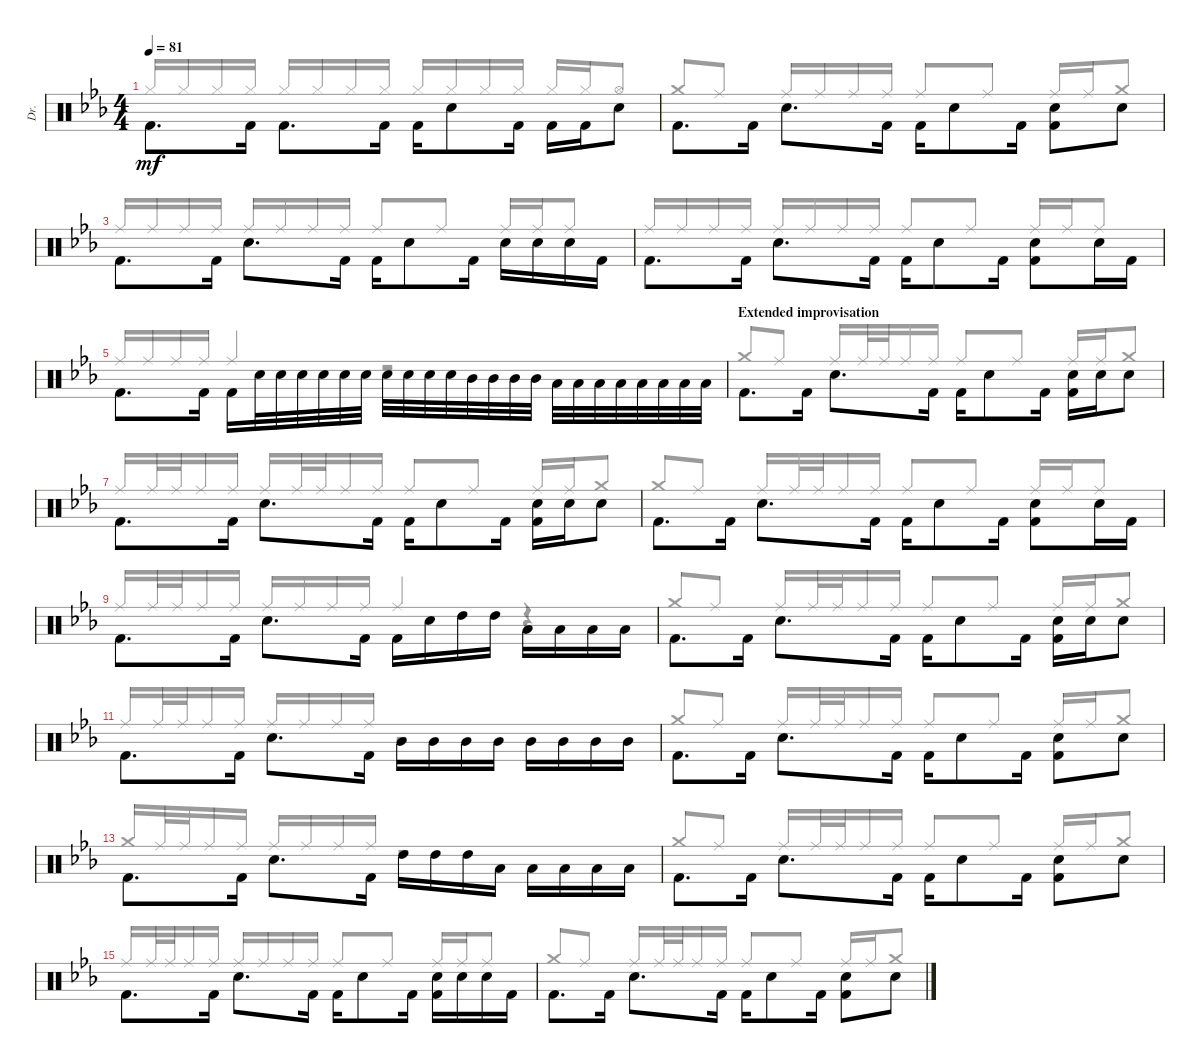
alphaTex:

\bracketExtendMode groupsimilarinstruments
\otherSystemsTrackNameOrientation horizontal
\defaultBarNumberDisplay FirstOfSystem
\track ("Drums" "Dr.") {multiBarRest instrument percussion}
\staff {score}
\articulation defaults
\voice
\ts (4 4)
\tempo 81
\clef neutral
\ks eb "Kick (hit) 2"{acc forcenatural}.8{d dy mf beam Down} "Kick (hit) 2"{acc forcenatural}.16{beam Down} "Kick (hit) 2"{acc forcenatural}.8{d beam Down} "Kick (hit) 2"{acc forcenatural}.16{beam Down} "Kick (hit) 2"{acc forcenatural}.16{beam Down} "Snare (hit) 2"{acc forcenatural}.8{beam Down} "Kick (hit) 2"{acc forcenatural}.16{beam Down} "Kick (hit) 2"{acc forcenatural}.16{beam Down} "Kick (hit) 2"{acc forcenatural}.16{beam Down} "Snare (hit) 2"{acc forcenatural}.8{beam Down}
|
"Kick (hit) 2"{acc forcenatural}.8{d beam Down} "Kick (hit) 2"{acc forcenatural}.16{beam Down} "Snare (hit) 2"{acc forcenatural}.8{d beam Down} "Kick (hit) 2"{acc forcenatural}.16{beam Down} "Kick (hit) 2"{acc forcenatural}.16{beam Down} "Snare (hit) 2"{acc forcenatural}.8{beam Down} "Kick (hit) 2"{acc forcenatural}.16{beam Down} ("Snare (hit) 2"{acc forcenatural} "Kick (hit) 2"{acc forcenatural}).8{beam Down} "Snare (hit) 2"{acc forcenatural}.8{beam Down} |
"Kick (hit) 2"{acc forcenatural}.8{d beam Down} "Kick (hit) 2"{acc forcenatural}.16{beam Down} "Snare (hit) 2"{acc forcenatural}.8{d beam Down} "Kick (hit) 2"{acc forcenatural}.16{beam Down} "Kick (hit) 2"{acc forcenatural}.16{beam Down} "Snare (hit) 2"{acc forcenatural}.8{beam Down} "Kick (hit) 2"{acc forcenatural}.16{beam Down} "Snare (hit) 2"{acc forcenatural}.16{beam Down} "Snare (hit) 2"{acc forcenatural}.16{beam Down} "Snare (hit) 2"{acc forcenatural}.16{beam Down} "Kick (hit) 2"{acc forcenatural}.16{beam Down} |
"Kick (hit) 2"{acc forcenatural}.8{d beam Down} "Kick (hit) 2"{acc forcenatural}.16{beam Down} "Snare (hit) 2"{acc forcenatural}.8{d beam Down} "Kick (hit) 2"{acc forcenatural}.16{beam Down} "Kick (hit) 2"{acc forcenatural}.16{beam Down} "Snare (hit) 2"{acc forcenatural}.8{beam Down} "Kick (hit) 2"{acc forcenatural}.16{beam Down} ("Kick (hit) 2"{acc forcenatural} "Snare (hit) 2"{acc forcenatural}).8{beam Down} "Snare (hit) 2"{acc forcenatural}.16{beam Down} "Kick (hit) 2"{acc forcenatural}.16{beam Down} |
"Kick (hit) 2"{acc forcenatural}.8{d beam Down} "Kick (hit) 2"{acc forcenatural}.16{beam Down} "Kick (hit) 2"{acc forcenatural}.16{beam Down} "Snare (hit) 2"{acc forcenatural}.32{beam Down} "Snare (hit) 2"{acc forcenatural}.32{beam Down} "Snare (hit) 2"{acc forcenatural}.32{beam Down} "Snare (hit) 2"{acc forcenatural}.32{beam Down} "Snare (hit) 2"{acc forcenatural}.32{beam Down} "Snare (hit) 2"{acc forcenatural}.32{beam Down} "Snare (hit) 2"{acc forcenatural}.32{beam Down} "Snare (hit) 2"{acc forcenatural}.32{beam Down} "Snare (hit) 2"{acc forcenatural}.32{beam Down} "Snare (hit) 2"{acc forcenatural}.32{beam Down} "Mid Tom (hit)"{acc forcenatural}.32{beam Down} "Mid Tom (hit)"{acc forcenatural}.32{beam Down} "Mid Tom (hit)"{acc forcenatural}.32{beam Down} "Mid Tom (hit)"{acc forcenatural}.32{beam Down} "Low Tom (hit)"{acc forcenatural}.32{beam Down} "Low Tom (hit)"{acc forcenatural}.32{beam Down} "Low Tom (hit)"{acc forcenatural}.32{beam Down} "Low Tom (hit)"{acc forcenatural}.32{beam Down} "Low Tom (hit)"{acc forcenatural}.32{beam Down} "Low Tom (hit)"{acc forcenatural}.32{beam Down} "Low Tom (hit)"{acc forcenatural}.32{beam Down} "Low Tom (hit)"{acc forcenatural}.32{beam Down} |
\section ("" "Extended improvisation")
"Kick (hit) 2"{acc forcenatural}.8{d beam Down} "Kick (hit) 2"{acc forcenatural}.16{beam Down} "Snare (hit) 2"{acc forcenatural}.8{d beam Down} "Kick (hit) 2"{acc forcenatural}.16{beam Down} "Kick (hit) 2"{acc forcenatural}.16{beam Down} "Snare (hit) 2"{acc forcenatural}.8{beam Down} "Kick (hit) 2"{acc forcenatural}.16{beam Down} ("Kick (hit) 2"{acc forcenatural} "Snare (hit) 2"{acc forcenatural}).16{beam Down} "Snare (hit) 2"{acc forcenatural}.16{beam Down} "Snare (hit) 2"{acc forcenatural}.8{beam Down} |
"Kick (hit) 2"{acc forcenatural}.8{d beam Down} "Kick (hit) 2"{acc forcenatural}.16{beam Down} "Snare (hit) 2"{acc forcenatural}.8{d beam Down} "Kick (hit) 2"{acc forcenatural}.16{beam Down} "Kick (hit) 2"{acc forcenatural}.16{beam Down} "Snare (hit) 2"{acc forcenatural}.8{beam Down} "Kick (hit) 2"{acc forcenatural}.16{beam Down} ("Kick (hit) 2"{acc forcenatural} "Snare (hit) 2"{acc forcenatural}).16{beam Down} "Snare (hit) 2"{acc forcenatural}.16{beam Down} "Snare (hit) 2"{acc forcenatural}.8{beam Down} |
"Kick (hit) 2"{acc forcenatural}.8{d beam Down} "Kick (hit) 2"{acc forcenatural}.16{beam Down} "Snare (hit) 2"{acc forcenatural}.8{d beam Down} "Kick (hit) 2"{acc forcenatural}.16{beam Down} "Kick (hit) 2"{acc forcenatural}.16{beam Down} "Snare (hit) 2"{acc forcenatural}.8{beam Down} "Kick (hit) 2"{acc forcenatural}.16{beam Down} ("Kick (hit) 2"{acc forcenatural} "Snare (hit) 2"{acc forcenatural}).8{beam Down} "Snare (hit) 2"{acc forcenatural}.16{beam Down} "Kick (hit) 2"{acc forcenatural}.16{beam Down} |
"Kick (hit) 2"{acc forcenatural}.8{d beam Down} "Kick (hit) 2"{acc forcenatural}.16{beam Down} "Snare (hit) 2"{acc forcenatural}.8{d beam Down} "Kick (hit) 2"{acc forcenatural}.16{beam Down} "Kick (hit) 2"{acc forcenatural}.16{beam Down} "Snare (hit) 2"{acc forcenatural}.16{beam Down} "High Tom (hit)"{acc forcenatural}.16{beam Down} "High Tom (hit)"{acc forcenatural}.16{beam Down} "Low Tom (hit)"{acc forcenatural}.16{beam Down} "Low Tom (hit)"{acc forcenatural}.16{beam Down} "Low Tom (hit)"{acc forcenatural}.16{beam Down} "Low Tom (hit)"{acc forcenatural}.16{beam Down} |
"Kick (hit) 2"{acc forcenatural}.8{d beam Down} "Kick (hit) 2"{acc forcenatural}.16{beam Down} "Snare (hit) 2"{acc forcenatural}.8{d beam Down} "Kick (hit) 2"{acc forcenatural}.16{beam Down} "Kick (hit) 2"{acc forcenatural}.16{beam Down} "Snare (hit) 2"{acc forcenatural}.8{beam Down} "Kick (hit) 2"{acc forcenatural}.16{beam Down} ("Kick (hit) 2"{acc forcenatural} "Snare (hit) 2"{acc forcenatural}).16{beam Down} "Snare (hit) 2"{acc forcenatural}.16{beam Down} "Snare (hit) 2"{acc forcenatural}.8{beam Down} |
"Kick (hit) 2"{acc forcenatural}.8{d beam Down} "Kick (hit) 2"{acc forcenatural}.16{beam Down} "Snare (hit) 2"{acc forcenatural}.8{d beam Down} "Kick (hit) 2"{acc forcenatural}.16{beam Down} "Mid Tom (hit)"{acc forcenatural}.16{beam Down} "Mid Tom (hit)"{acc forcenatural}.16{beam Down} "Mid Tom (hit)"{acc forcenatural}.16{beam Down} "Mid Tom (hit)"{acc forcenatural}.16{beam Down} "Mid Tom (hit)"{acc forcenatural}.16{beam Down} "Mid Tom (hit)"{acc forcenatural}.16{beam Down} "Mid Tom (hit)"{acc forcenatural}.16{beam Down} "Mid Tom (hit)"{acc forcenatural}.16{beam Down} |
"Kick (hit) 2"{acc forcenatural}.8{d beam Down} "Kick (hit) 2"{acc forcenatural}.16{beam Down} "Snare (hit) 2"{acc forcenatural}.8{d beam Down} "Kick (hit) 2"{acc forcenatural}.16{beam Down} "Kick (hit) 2"{acc forcenatural}.16{beam Down} "Snare (hit) 2"{acc forcenatural}.8{beam Down} "Kick (hit) 2"{acc forcenatural}.16{beam Down} ("Snare (hit) 2"{acc forcenatural} "Kick (hit) 2"{acc forcenatural}).8{beam Down} "Snare (hit) 2"{acc forcenatural}.8{beam Down} |
"Kick (hit) 2"{acc forcenatural}.8{d beam Down} "Kick (hit) 2"{acc forcenatural}.16{beam Down} "Snare (hit) 2"{acc forcenatural}.8{d beam Down} "Kick (hit) 2"{acc forcenatural}.16{beam Down} "High Tom (hit)"{acc forcenatural}.16{beam Down} "High Tom (hit)"{acc forcenatural}.16{beam Down} "High Tom (hit)"{acc forcenatural}.16{beam Down} "Low Tom (hit)"{acc forcenatural}.16{beam Down} "Low Tom (hit)"{acc forcenatural}.16{beam Down} "Low Tom (hit)"{acc forcenatural}.16{beam Down} "Low Tom (hit)"{acc forcenatural}.16{beam Down} "Low Tom (hit)"{acc forcenatural}.16{beam Down} |
"Kick (hit) 2"{acc forcenatural}.8{d beam Down} "Kick (hit) 2"{acc forcenatural}.16{beam Down} "Snare (hit) 2"{acc forcenatural}.8{d beam Down} "Kick (hit) 2"{acc forcenatural}.16{beam Down} "Kick (hit) 2"{acc forcenatural}.16{beam Down} "Snare (hit) 2"{acc forcenatural}.8{beam Down} "Kick (hit) 2"{acc forcenatural}.16{beam Down} ("Snare (hit) 2"{acc forcenatural} "Kick (hit) 2"{acc forcenatural}).8{beam Down} "Snare (hit) 2"{acc forcenatural}.8{beam Down} |
"Kick (hit) 2"{acc forcenatural}.8{d beam Down} "Kick (hit) 2"{acc forcenatural}.16{beam Down} "Snare (hit) 2"{acc forcenatural}.8{d beam Down} "Kick (hit) 2"{acc forcenatural}.16{beam Down} "Kick (hit) 2"{acc forcenatural}.16{beam Down} "Snare (hit) 2"{acc forcenatural}.8{beam Down} "Kick (hit) 2"{acc forcenatural}.16{beam Down} ("Kick (hit) 2"{acc forcenatural} "Snare (hit) 2"{acc forcenatural}).16{beam Down} "Snare (hit) 2"{acc forcenatural}.16{beam Down} "Snare (hit) 2"{acc forcenatural}.16{beam Down} "Kick (hit) 2"{acc forcenatural}.16{beam Down} |
"Kick (hit) 2"{acc forcenatural}.8{d beam Down} "Kick (hit) 2"{acc forcenatural}.16{beam Down} "Snare (hit) 2"{acc forcenatural}.8{d beam Down} "Kick (hit) 2"{acc forcenatural}.16{beam Down} "Kick (hit) 2"{acc forcenatural}.16{beam Down} "Snare (hit) 2"{acc forcenatural}.8{beam Down} "Kick (hit) 2"{acc forcenatural}.16{beam Down} ("Snare (hit) 2"{acc forcenatural} "Kick (hit) 2"{acc forcenatural}).8{beam Down} "Snare (hit) 2"{acc forcenatural}.8{beam Down}
\voice
\clef neutral
\ottava regular
\simile none
\ks eb "Hi-Hat (closed)"{acc forcenatural}.16{dy mf beam Up} "Hi-Hat (closed)"{acc forcenatural}.16{beam Up} "Hi-Hat (closed)"{acc forcenatural}.16{beam Up} "Hi-Hat (closed)"{acc forcenatural}.16{beam Up} "Hi-Hat (closed)"{acc forcenatural}.16{beam Up} "Hi-Hat (closed)"{acc forcenatural}.16{beam Up} "Hi-Hat (closed)"{acc forcenatural}.16{beam Up} "Hi-Hat (closed)"{acc forcenatural}.16{beam Up} "Hi-Hat (closed)"{acc forcenatural}.16{beam Up} "Hi-Hat (closed)"{acc forcenatural}.16{beam Up} "Hi-Hat (closed)"{acc forcenatural}.16{beam Up} "Hi-Hat (closed)"{acc forcenatural}.16{beam Up} "Hi-Hat (closed)"{acc forcenatural}.16{beam Up} "Hi-Hat (closed)"{acc forcenatural}.16{beam Up} "Hi-Hat (open)"{acc forcenatural}.8{beam Up}
|
"Crash medium (hit)"{acc forcenatural}.8{beam Up} "Ride (middle)"{acc forcenatural}.8{beam Up} "Ride (middle)"{acc forcenatural}.16{beam Up} "Ride (middle)"{acc forcenatural}.16{beam Up} "Ride (middle)"{acc forcenatural}.16{beam Up} "Ride (middle)"{acc forcenatural}.16{beam Up} "Ride (middle)"{acc forcenatural}.8{beam Up} "Ride (middle)"{acc forcenatural}.8{beam Up} "Ride (middle)"{acc forcenatural}.16{beam Up} "Ride (middle)"{acc forcenatural}.16{beam Up} "Crash medium (hit)"{acc forcenatural}.8{beam Up} |
"Ride (middle)"{acc forcenatural}.16{beam Up} "Ride (middle)"{acc forcenatural}.16{beam Up} "Ride (middle)"{acc forcenatural}.16{beam Up} "Ride (middle)"{acc forcenatural}.16{beam Up} "Ride (middle)"{acc forcenatural}.16{beam Up} "Ride (middle)"{acc forcenatural}.16{beam Up} "Ride (middle)"{acc forcenatural}.16{beam Up} "Ride (middle)"{acc forcenatural}.16{beam Up} "Ride (middle)"{acc forcenatural}.8{beam Up} "Ride (middle)"{acc forcenatural}.8{beam Up} "Ride (middle)"{acc forcenatural}.16{beam Up} "Ride (middle)"{acc forcenatural}.16{beam Up} "Ride (middle)"{acc forcenatural}.8{beam Up} |
"Ride (middle)"{acc forcenatural}.16{beam Up} "Ride (middle)"{acc forcenatural}.16{beam Up} "Ride (middle)"{acc forcenatural}.16{beam Up} "Ride (middle)"{acc forcenatural}.16{beam Up} "Ride (middle)"{acc forcenatural}.16{beam Up} "Ride (middle)"{acc forcenatural}.16{beam Up} "Ride (middle)"{acc forcenatural}.16{beam Up} "Ride (middle)"{acc forcenatural}.16{beam Up} "Ride (middle)"{acc forcenatural}.8{beam Up} "Ride (middle)"{acc forcenatural}.8{beam Up} "Ride (middle)"{acc forcenatural}.16{beam Up} "Ride (middle)"{acc forcenatural}.16{beam Up} "Ride (middle)"{acc forcenatural}.8{beam Up} |
"Ride (middle)"{acc forcenatural}.16{beam Up} "Ride (middle)"{acc forcenatural}.16{beam Up} "Ride (middle)"{acc forcenatural}.16{beam Up} "Ride (middle)"{acc forcenatural}.16{beam Up} "Ride (middle)"{acc forcenatural}.4{beam Up} r.2{beam Down} |
"Crash medium (hit)"{acc forcenatural}.8{beam Up} "Ride (middle)"{acc forcenatural}.8{beam Up} "Ride (middle)"{acc forcenatural}.16{beam Up} "Ride (middle)"{acc forcenatural}.32{beam Up} "Ride (middle)"{acc forcenatural}.32{beam Up} "Ride (middle)"{acc forcenatural}.16{beam Up} "Ride (middle)"{acc forcenatural}.16{beam Up} "Ride (middle)"{acc forcenatural}.8{beam Up} "Ride (middle)"{acc forcenatural}.8{beam Up} "Ride (middle)"{acc forcenatural}.16{beam Up} "Ride (middle)"{acc forcenatural}.16{beam Up} "Crash medium (hit)"{acc forcenatural}.8{beam Up} |
"Ride (middle)"{acc forcenatural}.16{beam Up} "Ride (middle)"{acc forcenatural}.32{beam Up} "Ride (middle)"{acc forcenatural}.32{beam Up} "Ride (middle)"{acc forcenatural}.16{beam Up} "Ride (middle)"{acc forcenatural}.16{beam Up} "Ride (middle)"{acc forcenatural}.16{beam Up} "Ride (middle)"{acc forcenatural}.32{beam Up} "Ride (middle)"{acc forcenatural}.32{beam Up} "Ride (middle)"{acc forcenatural}.16{beam Up} "Ride (middle)"{acc forcenatural}.16{beam Up} "Ride (middle)"{acc forcenatural}.8{beam Up} "Ride (middle)"{acc forcenatural}.8{beam Up} "Ride (middle)"{acc forcenatural}.16{beam Up} "Ride (middle)"{acc forcenatural}.16{beam Up} "Crash medium (hit)"{acc forcenatural}.8{beam Up} |
"Crash medium (hit)"{acc forcenatural}.8{beam Up} "Ride (middle)"{acc forcenatural}.8{beam Up} "Ride (middle)"{acc forcenatural}.16{beam Up} "Ride (middle)"{acc forcenatural}.32{beam Up} "Ride (middle)"{acc forcenatural}.32{beam Up} "Ride (middle)"{acc forcenatural}.16{beam Up} "Ride (middle)"{acc forcenatural}.16{beam Up} "Ride (middle)"{acc forcenatural}.8{beam Up} "Ride (middle)"{acc forcenatural}.8{beam Up} "Ride (middle)"{acc forcenatural}.16{beam Up} "Ride (middle)"{acc forcenatural}.16{beam Up} "Ride (middle)"{acc forcenatural}.8{beam Up} |
"Ride (middle)"{acc forcenatural}.16{beam Up} "Ride (middle)"{acc forcenatural}.32{beam Up} "Ride (middle)"{acc forcenatural}.32{beam Up} "Ride (middle)"{acc forcenatural}.16{beam Up} "Ride (middle)"{acc forcenatural}.16{beam Up} "Ride (middle)"{acc forcenatural}.16{beam Up} "Ride (middle)"{acc forcenatural}.16{beam Up} "Ride (middle)"{acc forcenatural}.16{beam Up} "Ride (middle)"{acc forcenatural}.16{beam Up} "Ride (middle)"{acc forcenatural}.4{beam Up} r.4{beam Down} |
"Crash medium (hit)"{acc forcenatural}.8{beam Up} "Ride (middle)"{acc forcenatural}.8{beam Up} "Ride (middle)"{acc forcenatural}.16{beam Up} "Ride (middle)"{acc forcenatural}.32{beam Up} "Ride (middle)"{acc forcenatural}.32{beam Up} "Ride (middle)"{acc forcenatural}.16{beam Up} "Ride (middle)"{acc forcenatural}.16{beam Up} "Ride (middle)"{acc forcenatural}.8{beam Up} "Ride (middle)"{acc forcenatural}.8{beam Up} "Ride (middle)"{acc forcenatural}.16{beam Up} "Ride (middle)"{acc forcenatural}.16{beam Up} "Crash medium (hit)"{acc forcenatural}.8{beam Up} |
"Ride (middle)"{acc forcenatural}.16{beam Up} "Ride (middle)"{acc forcenatural}.32{beam Up} "Ride (middle)"{acc forcenatural}.32{beam Up} "Ride (middle)"{acc forcenatural}.16{beam Up} "Ride (middle)"{acc forcenatural}.16{beam Up} "Ride (middle)"{acc forcenatural}.16{beam Up} "Ride (middle)"{acc forcenatural}.16{beam Up} "Ride (middle)"{acc forcenatural}.16{beam Up} "Ride (middle)"{acc forcenatural}.16{beam Up} r.2{beam Down} |
"Crash medium (hit)"{acc forcenatural}.8{beam Up} "Ride (middle)"{acc forcenatural}.8{beam Up} "Ride (middle)"{acc forcenatural}.16{beam Up} "Ride (middle)"{acc forcenatural}.32{beam Up} "Ride (middle)"{acc forcenatural}.32{beam Up} "Ride (middle)"{acc forcenatural}.16{beam Up} "Ride (middle)"{acc forcenatural}.16{beam Up} "Ride (middle)"{acc forcenatural}.8{beam Up} "Ride (middle)"{acc forcenatural}.8{beam Up} "Ride (middle)"{acc forcenatural}.16{beam Up} "Ride (middle)"{acc forcenatural}.16{beam Up} "Crash medium (hit)"{acc forcenatural}.8{beam Up} |
"Crash medium (hit)"{acc forcenatural}.16{beam Up} "Ride (middle)"{acc forcenatural}.32{beam Up} "Ride (middle)"{acc forcenatural}.32{beam Up} "Ride (middle)"{acc forcenatural}.16{beam Up} "Ride (middle)"{acc forcenatural}.16{beam Up} "Ride (middle)"{acc forcenatural}.16{beam Up} "Ride (middle)"{acc forcenatural}.16{beam Up} "Ride (middle)"{acc forcenatural}.16{beam Up} "Ride (middle)"{acc forcenatural}.16{beam Up} r.2{beam Down} |
"Crash medium (hit)"{acc forcenatural}.8{beam Up} "Ride (middle)"{acc forcenatural}.8{beam Up} "Ride (middle)"{acc forcenatural}.16{beam Up} "Ride (middle)"{acc forcenatural}.32{beam Up} "Ride (middle)"{acc forcenatural}.32{beam Up} "Ride (middle)"{acc forcenatural}.16{beam Up} "Ride (middle)"{acc forcenatural}.16{beam Up} "Ride (middle)"{acc forcenatural}.8{beam Up} "Ride (middle)"{acc forcenatural}.8{beam Up} "Ride (middle)"{acc forcenatural}.16{beam Up} "Ride (middle)"{acc forcenatural}.16{beam Up} "Crash medium (hit)"{acc forcenatural}.8{beam Up} |
"Ride (middle)"{acc forcenatural}.16{beam Up} "Ride (middle)"{acc forcenatural}.32{beam Up} "Ride (middle)"{acc forcenatural}.32{beam Up} "Ride (middle)"{acc forcenatural}.16{beam Up} "Ride (middle)"{acc forcenatural}.16{beam Up} "Ride (middle)"{acc forcenatural}.16{beam Up} "Ride (middle)"{acc forcenatural}.16{beam Up} "Ride (middle)"{acc forcenatural}.16{beam Up} "Ride (middle)"{acc forcenatural}.16{beam Up} "Ride (middle)"{acc forcenatural}.8{beam Up} "Ride (middle)"{acc forcenatural}.8{beam Up} "Ride (middle)"{acc forcenatural}.16{beam Up} "Ride (middle)"{acc forcenatural}.16{beam Up} "Ride (middle)"{acc forcenatural}.8{beam Up} |
"Crash medium (hit)"{acc forcenatural}.8{beam Up} "Ride (middle)"{acc forcenatural}.8{beam Up} "Ride (middle)"{acc forcenatural}.16{beam Up} "Ride (middle)"{acc forcenatural}.32{beam Up} "Ride (middle)"{acc forcenatural}.32{beam Up} "Ride (middle)"{acc forcenatural}.16{beam Up} "Ride (middle)"{acc forcenatural}.16{beam Up} "Ride (middle)"{acc forcenatural}.8{beam Up} "Ride (middle)"{acc forcenatural}.8{beam Up} "Ride (middle)"{acc forcenatural}.16{beam Up} "Ride (middle)"{acc forcenatural}.16{beam Up} "Crash medium (hit)"{acc forcenatural}.8{beam Up}
